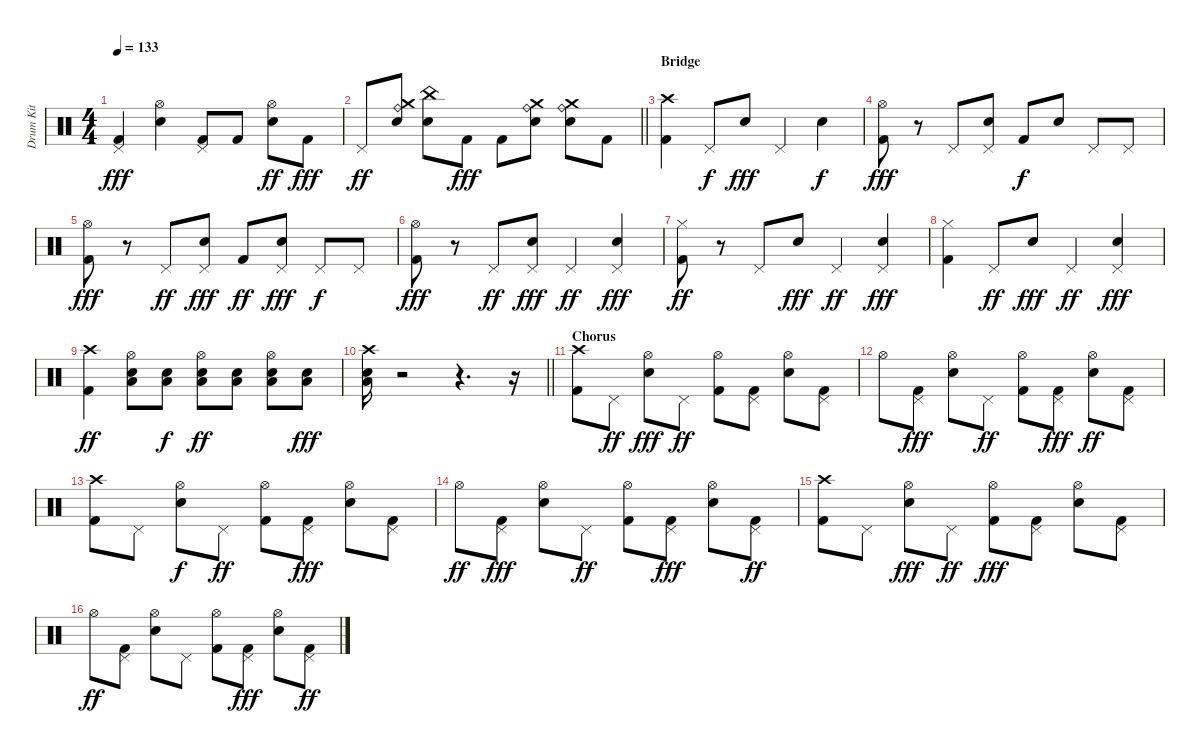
\track ("Drum Kit" "Drum Kit") {instrument percussion}
\staff {score}
\articulation defaults
\ts (4 4)
\tempo 133
\clef neutral
\ks c
("Pedal Hi-Hat (hit)" "Kick (hit) 2").4{dy fff} ("Hi-Hat (open)" "Electric Snare (hit)").4 ("Pedal Hi-Hat (hit)" "Kick (hit) 2").8 "Kick (hit) 2".8 ("Electric Snare (hit)" "Hi-Hat (open)").8{dy ff} "Kick (hit) 2".8{dy fff} |
\barLineRight lightlight "Pedal Hi-Hat (hit)".8{dy ff}
("Electric Snare (hit)" "Crash medium (hit)" "Ride (bell)").8 ("Electric Snare (hit)" "China (hit)").8 "Kick (hit) 2".8{dy fff} "Kick (hit) 2".8 ("Ride (bell)" "Crash medium (hit)" "Electric Snare (hit)").8 ("Ride (bell)" "Crash medium (hit)" "Electric Snare (hit)").8 "Kick (hit) 2".8 |
\section ("" "Bridge")
("Crash high (hit)" "Kick (hit) 2").4 "Pedal Hi-Hat (hit)".8{dy f} "Electric Snare (hit)".8{dy fff} "Pedal Hi-Hat (hit)".4 "Electric Snare (hit)".4{dy f} |
("Hi-Hat (open)" "Kick (hit) 2").8{dy fff} r.8 "Pedal Hi-Hat (hit)".8 ("Electric Snare (hit)" "Pedal Hi-Hat (hit)").8 "Kick (hit) 2".8{dy f} "Electric Snare (hit)".8 "Pedal Hi-Hat (hit)".8 "Pedal Hi-Hat (hit)".8 |
("Hi-Hat (open)" "Kick (hit) 2").8{dy fff} r.8 "Pedal Hi-Hat (hit)".8{dy ff} ("Electric Snare (hit)" "Pedal Hi-Hat (hit)").8{dy fff} "Kick (hit) 2".8{dy ff} ("Electric Snare (hit)" "Pedal Hi-Hat (hit)").8{dy fff} "Pedal Hi-Hat (hit)".8{dy f} "Pedal Hi-Hat (hit)".8 |
("Hi-Hat (open)" "Kick (hit) 2").8{dy fff} r.8 "Pedal Hi-Hat (hit)".8{dy ff} ("Electric Snare (hit)" "Pedal Hi-Hat (hit)").8{dy fff} "Pedal Hi-Hat (hit)".4{dy ff} ("Pedal Hi-Hat (hit)" "Electric Snare (hit)").4{dy fff} |
("Kick (hit) 2" "Hi-Hat (closed)").8{dy ff} r.8 "Pedal Hi-Hat (hit)".8 "Electric Snare (hit)".8{dy fff} "Pedal Hi-Hat (hit)".4{dy ff} ("Pedal Hi-Hat (hit)" "Electric Snare (hit)").4{dy fff} |
("Hi-Hat (closed)" "Kick (hit) 2").4 "Pedal Hi-Hat (hit)".8{dy ff} "Electric Snare (hit)".8{dy fff} "Pedal Hi-Hat (hit)".4{dy ff} ("Pedal Hi-Hat (hit)" "Electric Snare (hit)").4{dy fff} |
("Kick (hit) 2" "Crash high (hit)").4{dy ff} ("Electric Snare (hit)" "Low Floor Tom (hit)" "Hi-Hat (open)").8 ("Electric Snare (hit)" "Low Floor Tom (hit)").8{dy f} ("Hi-Hat (open)" "Electric Snare (hit)" "Low Floor Tom (hit)").8{dy ff} ("Low Floor Tom (hit)" "Electric Snare (hit)").8 ("Hi-Hat (open)" "Electric Snare (hit)" "Low Floor Tom (hit)").8 ("Electric Snare (hit)" "Low Floor Tom (hit)").8{dy fff} |
\barLineRight lightlight
("Crash high (hit)" "Electric Snare (hit)" "Low Floor Tom (hit)").16 r.2 r.4{d} r.16 |
\section ("" "Chorus")
("Crash high (hit)" "Kick (hit) 2").8 "Pedal Hi-Hat (hit)".8{dy ff} ("Hi-Hat (open)" "Electric Snare (hit)").8{dy fff} "Pedal Hi-Hat (hit)".8{dy ff} ("Kick (hit) 2" "Hi-Hat (open)").8 ("Kick (hit) 2" "Pedal Hi-Hat (hit)").8 ("Electric Snare (hit)" "Hi-Hat (open)").8 ("Kick (hit) 2" "Pedal Hi-Hat (hit)").8 |
"Hi-Hat (open)".8 ("Pedal Hi-Hat (hit)" "Kick (hit) 2").8{dy fff} ("Hi-Hat (open)" "Electric Snare (hit)").8 "Pedal Hi-Hat (hit)".8{dy ff} ("Kick (hit) 2" "Hi-Hat (open)").8 ("Pedal Hi-Hat (hit)" "Kick (hit) 2").8{dy fff} ("Electric Snare (hit)" "Hi-Hat (open)").8{dy ff} ("Kick (hit) 2" "Pedal Hi-Hat (hit)").8 |
("Kick (hit) 2" "Crash high (hit)").8 "Pedal Hi-Hat (hit)".8 ("Electric Snare (hit)" "Hi-Hat (open)").8{dy f} "Pedal Hi-Hat (hit)".8{dy ff} ("Kick (hit) 2" "Hi-Hat (open)").8 ("Kick (hit) 2" "Pedal Hi-Hat (hit)").8{dy fff} ("Hi-Hat (open)" "Electric Snare (hit)").8 ("Pedal Hi-Hat (hit)" "Kick (hit) 2").8 |
"Hi-Hat (open)".8{dy ff} ("Kick (hit) 2" "Pedal Hi-Hat (hit)").8{dy fff} ("Electric Snare (hit)" "Hi-Hat (open)").8 "Pedal Hi-Hat (hit)".8{dy ff} ("Kick (hit) 2" "Hi-Hat (open)").8 ("Pedal Hi-Hat (hit)" "Kick (hit) 2").8{dy fff} ("Electric Snare (hit)" "Hi-Hat (open)").8 ("Kick (hit) 2" "Pedal Hi-Hat (hit)").8{dy ff} |
("Kick (hit) 2" "Crash high (hit)").8 "Pedal Hi-Hat (hit)".8 ("Electric Snare (hit)" "Hi-Hat (open)").8{dy fff} "Pedal Hi-Hat (hit)".8{dy ff} ("Hi-Hat (open)" "Kick (hit) 2").8{dy fff} ("Pedal Hi-Hat (hit)" "Kick (hit) 2").8 ("Hi-Hat (open)" "Electric Snare (hit)").8 ("Kick (hit) 2" "Pedal Hi-Hat (hit)").8 |
"Hi-Hat (open)".8{dy ff} ("Kick (hit) 2" "Pedal Hi-Hat (hit)").8 ("Electric Snare (hit)" "Hi-Hat (open)").8 "Pedal Hi-Hat (hit)".8 ("Kick (hit) 2" "Hi-Hat (open)").8 ("Pedal Hi-Hat (hit)" "Kick (hit) 2").8{dy fff} ("Hi-Hat (open)" "Electric Snare (hit)").8 ("Kick (hit) 2" "Pedal Hi-Hat (hit)").8{dy ff}
